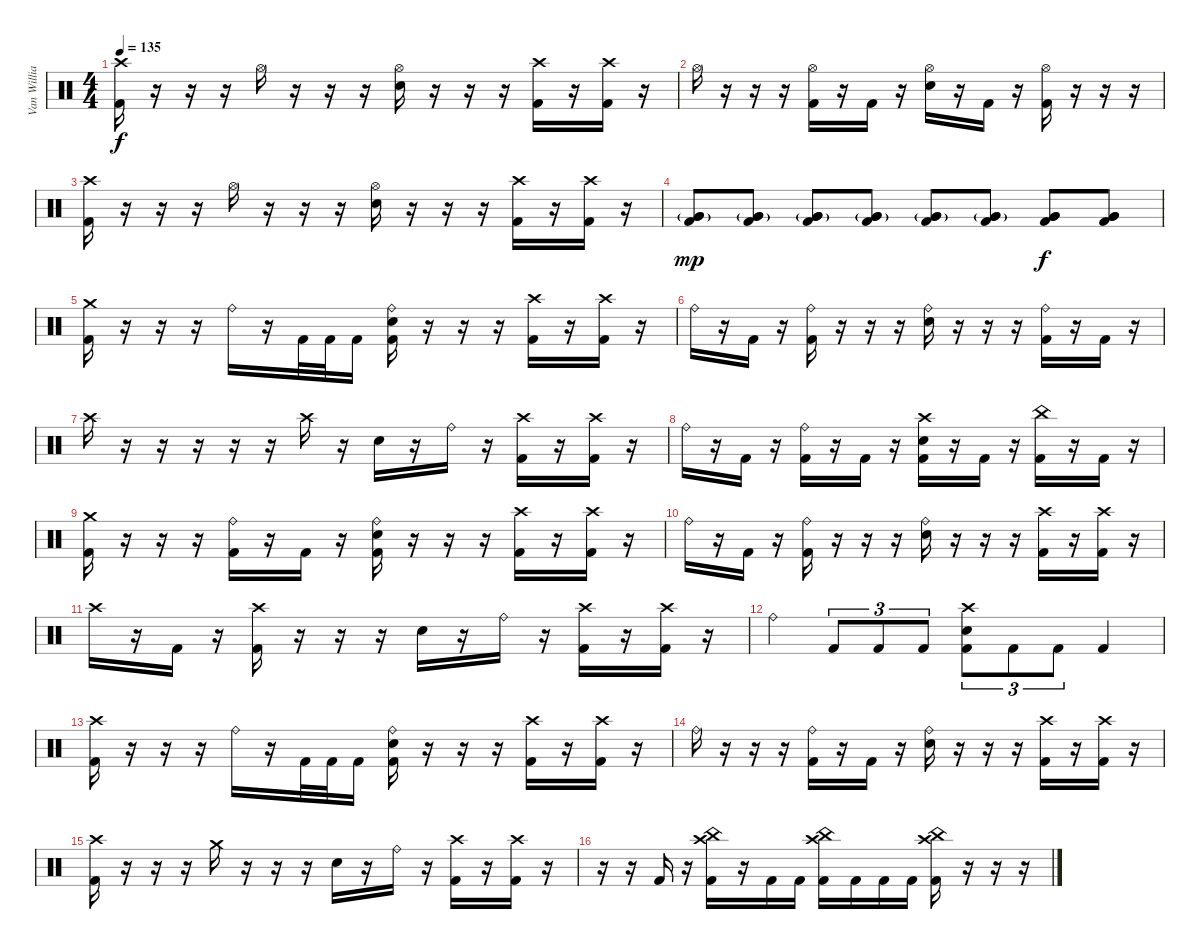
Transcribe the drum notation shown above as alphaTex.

\track ("Van Williams" "Van Willia") {instrument percussion}
\staff {score}
\articulation defaults
\ts (4 4)
\tempo 135
\clef neutral
\ks c
("Crash high (hit)" "Kick (hit) 2").16{dy f} r.16 r.16 r.16 "Hi-Hat (open)".16 r.16 r.16 r.16 ("Hi-Hat (open)" "Electric Snare (hit)").16 r.16 r.16 r.16 ("Crash high (hit)" "Kick (hit) 2").16 r.16 ("Crash high (hit)" "Kick (hit) 2").16 r.16 |
"Hi-Hat (open)".16 r.16 r.16 r.16 ("Hi-Hat (open)" "Kick (hit) 2").16 r.16 "Kick (hit) 2".16 r.16 ("Hi-Hat (open)" "Electric Snare (hit)").16 r.16 "Kick (hit) 2".16 r.16 ("Hi-Hat (open)" "Kick (hit) 2").16 r.16 r.16 r.16 |
("Crash high (hit)" "Kick (hit) 2").16 r.16 r.16 r.16 "Hi-Hat (open)".16 r.16 r.16 r.16 ("Hi-Hat (open)" "Electric Snare (hit)").16 r.16 r.16 r.16 ("Crash high (hit)" "Kick (hit) 2").16 r.16 ("Crash high (hit)" "Kick (hit) 2").16 r.16 |
("Kick (hit) 2" "Very Low Tom (hit)"{g} "Very Low Tom (hit)"{g}).8{dy mp} ("Kick (hit) 2" "Very Low Tom (hit)"{g} "Very Low Tom (hit)"{g}).8 ("Kick (hit) 2" "Very Low Tom (hit)"{g} "Very Low Tom (hit)"{g}).8 ("Kick (hit) 2" "Very Low Tom (hit)" "Very Low Tom (hit)"{g}).8 ("Kick (hit) 2" "Very Low Tom (hit)" "Very Low Tom (hit)"{g}).8 ("Kick (hit) 2" "Very Low Tom (hit)" "Very Low Tom (hit)"{g}).8 ("Kick (hit) 2" "Very Low Tom (hit)" "Very Low Tom (hit)").8{dy f} ("Kick (hit) 2" "Very Low Tom (hit)" "Very Low Tom (hit)").8 |
("Crash medium (hit)" "Kick (hit) 2").16 r.16 r.16 r.16 "Ride (bell)".16 r.16 "Kick (hit) 2".32 "Kick (hit) 2".32 "Kick (hit) 2".16 ("Ride (bell)" "Kick (hit) 2" "Electric Snare (hit)").16 r.16 r.16 r.16 ("Crash high (hit)" "Kick (hit) 2").16 r.16 ("Crash high (hit)" "Kick (hit) 2").16 r.16 |
"Ride (bell)".16 r.16 "Kick (hit) 2".16 r.16 ("Ride (bell)" "Kick (hit) 2").16 r.16 r.16 r.16 ("Ride (bell)" "Electric Snare (hit)").16 r.16 r.16 r.16 ("Ride (bell)" "Kick (hit) 2").16 r.16 "Kick (hit) 2".16 r.16 |
"Crash high (hit)".16 r.16 r.16 r.16 r.16 r.16 "Crash high (hit)".16 r.16 "Electric Snare (hit)".16 r.16 "Ride (bell)".16 r.16 ("Crash high (hit)" "Kick (hit) 2").16 r.16 ("Crash high (hit)" "Kick (hit) 2").16 r.16 |
"Ride (bell)".16 r.16 "Kick (hit) 2".16 r.16 ("Ride (bell)" "Kick (hit) 2").16 r.16 "Kick (hit) 2".16 r.16 ("Crash high (hit)" "Kick (hit) 2" "Electric Snare (hit)").16 r.16 "Kick (hit) 2".16 r.16 ("China (hit)" "Kick (hit) 2").16 r.16 "Kick (hit) 2".16 r.16 |
("Crash medium (hit)" "Kick (hit) 2").16 r.16 r.16 r.16 ("Ride (bell)" "Kick (hit) 2").16 r.16 "Kick (hit) 2".16 r.16 ("Ride (bell)" "Kick (hit) 2" "Electric Snare (hit)").16 r.16 r.16 r.16 ("Crash high (hit)" "Kick (hit) 2").16 r.16 ("Crash high (hit)" "Kick (hit) 2").16 r.16 |
"Ride (bell)".16 r.16 "Kick (hit) 2".16 r.16 ("Ride (bell)" "Kick (hit) 2").16 r.16 r.16 r.16 ("Ride (bell)" "Electric Snare (hit)").16 r.16 r.16 r.16 ("Crash high (hit)" "Kick (hit) 2").16 r.16 ("Crash high (hit)" "Kick (hit) 2").16 r.16 |
"Crash high (hit)".16 r.16 "Kick (hit) 2".16 r.16 ("Crash high (hit)" "Kick (hit) 2").16 r.16 r.16 r.16 "Electric Snare (hit)".16 r.16 "Ride (bell)".16 r.16 ("Crash high (hit)" "Kick (hit) 2").16 r.16 ("Crash high (hit)" "Kick (hit) 2").16 r.16 |
"Ride (bell)".4 "Kick (hit) 2".8{tu (3 2)} "Kick (hit) 2".8{tu (3 2)} "Kick (hit) 2".8{tu (3 2)} ("Crash high (hit)" "Kick (hit) 2" "Electric Snare (hit)").8{tu (3 2)} "Kick (hit) 2".8{tu (3 2)} "Kick (hit) 2".8{tu (3 2)} "Kick (hit) 2".4 |
("Crash high (hit)" "Kick (hit) 2").16 r.16 r.16 r.16 "Ride (bell)".16 r.16 "Kick (hit) 2".32 "Kick (hit) 2".32 "Kick (hit) 2".16 ("Ride (bell)" "Kick (hit) 2" "Electric Snare (hit)").16 r.16 r.16 r.16 ("Crash high (hit)" "Kick (hit) 2").16 r.16 ("Crash high (hit)" "Kick (hit) 2").16 r.16 |
"Ride (bell)".16 r.16 r.16 r.16 ("Ride (bell)" "Kick (hit) 2").16 r.16 "Kick (hit) 2".16 r.16 ("Ride (bell)" "Electric Snare (hit)").16 r.16 r.16 r.16 ("Crash high (hit)" "Kick (hit) 2").16 r.16 ("Crash high (hit)" "Kick (hit) 2").16 r.16 |
("Crash high (hit)" "Kick (hit) 2").16 r.16 r.16 r.16 "Crash medium (hit)".16 r.16 r.16 r.16 "Electric Snare (hit)".16 r.16 "Ride (bell)".16 r.16 ("Crash high (hit)" "Kick (hit) 2").16 r.16 ("Crash high (hit)" "Kick (hit) 2").16 r.16 |
r.16 r.16 "Kick (hit) 2".16 r.16 ("China (hit)" "Crash high (hit)" "Kick (hit) 2").16 r.16 "Kick (hit) 2".16 "Kick (hit) 2".16 ("China (hit)" "Crash high (hit)" "Kick (hit) 2").16 "Kick (hit) 2".16 "Kick (hit) 2".16 "Kick (hit) 2".16 ("China (hit)" "Crash high (hit)" "Kick (hit) 2").16 r.16 r.16 r.16
